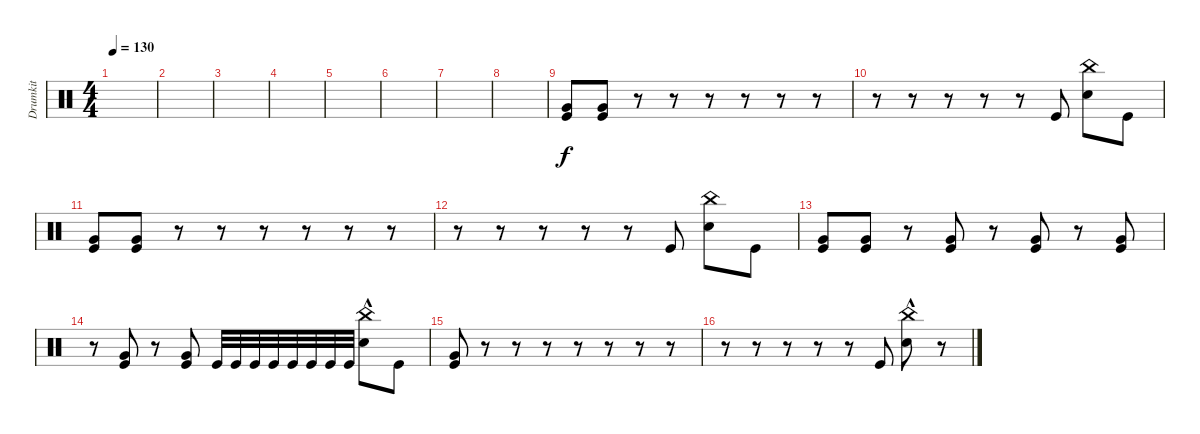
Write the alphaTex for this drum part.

\track ("Drumkit" "Drumkit") {instrument percussion}
\staff {score}
\articulation defaults
\ts (4 4)
\tempo 130
\clef neutral
\ks c
|
|
|
|
|
|
|
|
("Very Low Tom (hit)" "Kick (hit)").8 ("Very Low Tom (hit)" "Kick (hit)").8 r.8 r.8 r.8 r.8 r.8 r.8 |
r.8 r.8 r.8 r.8 r.8 "Kick (hit)".8 ("Snare (hit) 2" "China (hit)").8 "Kick (hit)".8 |
("Kick (hit)" "Very Low Tom (hit)").8 ("Kick (hit)" "Very Low Tom (hit)").8 r.8 r.8 r.8 r.8 r.8 r.8 |
r.8 r.8 r.8 r.8 r.8 "Kick (hit)".8 ("Snare (hit) 2" "China (hit)").8 "Kick (hit)".8 |
("Kick (hit)" "Very Low Tom (hit)").8 ("Kick (hit)" "Very Low Tom (hit)").8 r.8 ("Kick (hit)" "Very Low Tom (hit)").8 r.8 ("Kick (hit)" "Very Low Tom (hit)").8 r.8 ("Kick (hit)" "Very Low Tom (hit)").8 |
r.8 ("Kick (hit)" "Very Low Tom (hit)").8 r.8 ("Kick (hit)" "Very Low Tom (hit)").8 "Kick (hit)".32 "Kick (hit)".32 "Kick (hit)".32 "Kick (hit)".32 "Kick (hit)".32 "Kick (hit)".32 "Kick (hit)".32 "Kick (hit)".32 ("Snare (hit) 2"{hac} "China (hit)").8 "Kick (hit)".8 |
("Kick (hit)" "Very Low Tom (hit)").8 r.8 r.8 r.8 r.8 r.8 r.8 r.8 |
r.8 r.8 r.8 r.8 r.8 "Kick (hit)".8 ("Snare (hit) 2"{hac} "China (hit)").8 r.8
